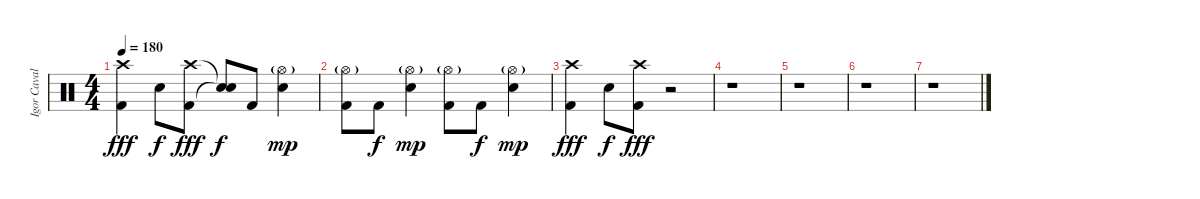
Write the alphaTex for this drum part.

\track ("Igor Cavalera" "Igor Caval") {instrument percussion}
\staff {score}
\articulation defaults
\ts (4 4)
\tempo 180
\clef neutral
\ks c
("Crash high (hit)" "Kick (hit) 2").4{dy fff} "Electric Snare (hit)".8{dy f} ("Crash high (hit)" "Kick (hit) 2").8{dy fff} ("Snare (hit)"{t} "Snare (hit)"{t}).8{dy f} "Kick (hit) 2".8 ("Hi-Hat (open)"{g} "Electric Snare (hit)").4{dy mp} |
("Hi-Hat (open)"{g} "Kick (hit) 2").8 "Kick (hit) 2".8{dy f} ("Hi-Hat (open)"{g} "Electric Snare (hit)").4{dy mp} ("Hi-Hat (open)"{g} "Kick (hit) 2").8 "Kick (hit) 2".8{dy f} ("Hi-Hat (open)"{g} "Electric Snare (hit)").4{dy mp} |
("Crash high (hit)" "Kick (hit) 2").4{dy fff} "Electric Snare (hit)".8{dy f} ("Crash high (hit)" "Kick (hit) 2").8{dy fff} r.2 |
r.1 |
r.1 |
r.1 |
r.1
